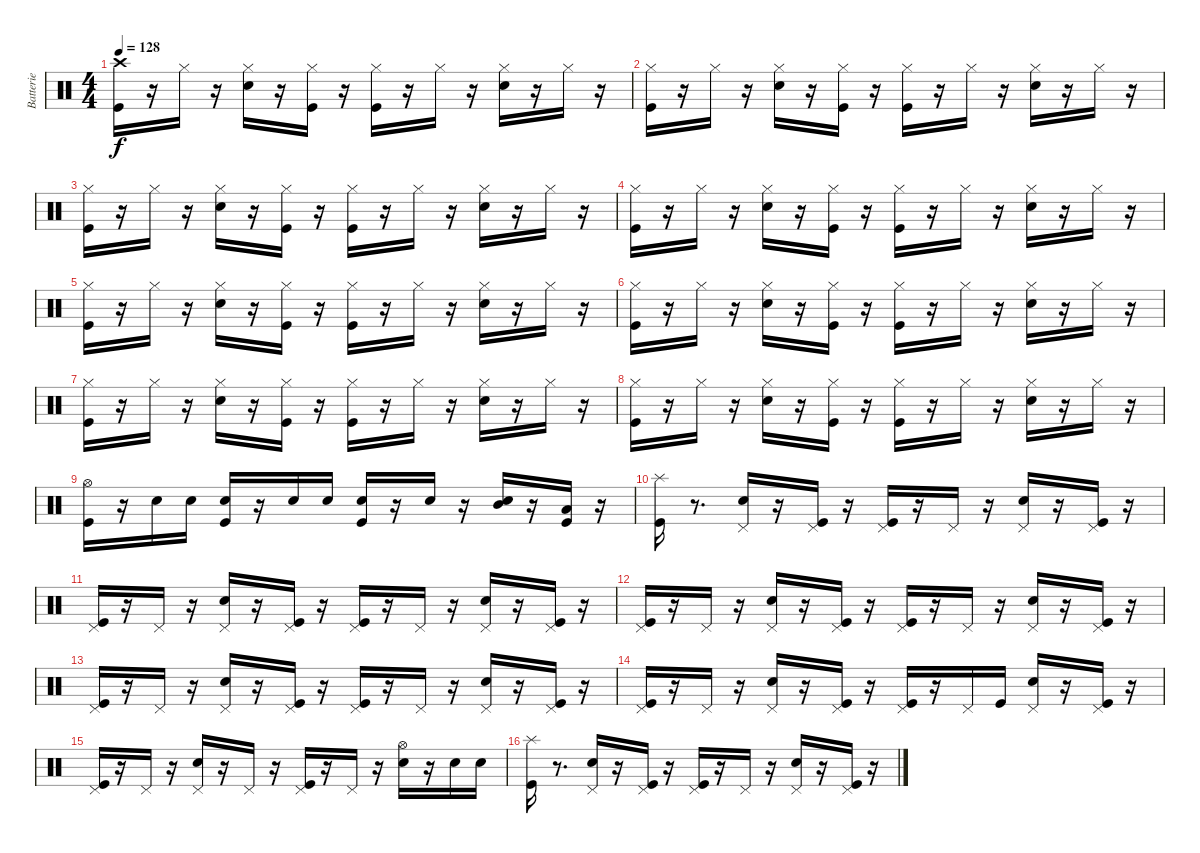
\track ("Batterie" "Batterie") {instrument percussion}
\staff {score}
\articulation defaults
\ts (4 4)
\tempo 128
\clef neutral
\ks c
("Crash high (hit)" "Kick (hit)").16{dy f} r.16 "Hi-Hat (closed)".16 r.16 ("Snare (hit) 2" "Hi-Hat (closed)").16 r.16 ("Kick (hit)" "Hi-Hat (closed)").16 r.16 ("Kick (hit)" "Hi-Hat (closed)").16 r.16 "Hi-Hat (closed)".16 r.16 ("Snare (hit) 2" "Hi-Hat (closed)").16 r.16 "Hi-Hat (closed)".16 r.16 |
("Kick (hit)" "Hi-Hat (closed)").16 r.16 "Hi-Hat (closed)".16 r.16 ("Snare (hit) 2" "Hi-Hat (closed)").16 r.16 ("Kick (hit)" "Hi-Hat (closed)").16 r.16 ("Kick (hit)" "Hi-Hat (closed)").16 r.16 "Hi-Hat (closed)".16 r.16 ("Snare (hit) 2" "Hi-Hat (closed)").16 r.16 "Hi-Hat (closed)".16 r.16 |
("Kick (hit)" "Hi-Hat (closed)").16 r.16 "Hi-Hat (closed)".16 r.16 ("Snare (hit) 2" "Hi-Hat (closed)").16 r.16 ("Kick (hit)" "Hi-Hat (closed)").16 r.16 ("Kick (hit)" "Hi-Hat (closed)").16 r.16 "Hi-Hat (closed)".16 r.16 ("Snare (hit) 2" "Hi-Hat (closed)").16 r.16 "Hi-Hat (closed)".16 r.16 |
("Kick (hit)" "Hi-Hat (closed)").16 r.16 "Hi-Hat (closed)".16 r.16 ("Snare (hit) 2" "Hi-Hat (closed)").16 r.16 ("Kick (hit)" "Hi-Hat (closed)").16 r.16 ("Kick (hit)" "Hi-Hat (closed)").16 r.16 "Hi-Hat (closed)".16 r.16 ("Snare (hit) 2" "Hi-Hat (closed)").16 r.16 "Hi-Hat (closed)".16 r.16 |
("Hi-Hat (closed)" "Kick (hit)").16 r.16 "Hi-Hat (closed)".16 r.16 ("Snare (hit) 2" "Hi-Hat (closed)").16 r.16 ("Kick (hit)" "Hi-Hat (closed)").16 r.16 ("Kick (hit)" "Hi-Hat (closed)").16 r.16 "Hi-Hat (closed)".16 r.16 ("Snare (hit) 2" "Hi-Hat (closed)").16 r.16 "Hi-Hat (closed)".16 r.16 |
("Kick (hit)" "Hi-Hat (closed)").16 r.16 "Hi-Hat (closed)".16 r.16 ("Snare (hit) 2" "Hi-Hat (closed)").16 r.16 ("Kick (hit)" "Hi-Hat (closed)").16 r.16 ("Kick (hit)" "Hi-Hat (closed)").16 r.16 "Hi-Hat (closed)".16 r.16 ("Snare (hit) 2" "Hi-Hat (closed)").16 r.16 "Hi-Hat (closed)".16 r.16 |
("Kick (hit)" "Hi-Hat (closed)").16 r.16 "Hi-Hat (closed)".16 r.16 ("Snare (hit) 2" "Hi-Hat (closed)").16 r.16 ("Kick (hit)" "Hi-Hat (closed)").16 r.16 ("Kick (hit)" "Hi-Hat (closed)").16 r.16 "Hi-Hat (closed)".16 r.16 ("Snare (hit) 2" "Hi-Hat (closed)").16 r.16 "Hi-Hat (closed)".16 r.16 |
("Kick (hit)" "Hi-Hat (closed)").16 r.16 "Hi-Hat (closed)".16 r.16 ("Snare (hit) 2" "Hi-Hat (closed)").16 r.16 ("Kick (hit)" "Hi-Hat (closed)").16 r.16 ("Kick (hit)" "Hi-Hat (closed)").16 r.16 "Hi-Hat (closed)".16 r.16 ("Snare (hit) 2" "Hi-Hat (closed)").16 r.16 "Hi-Hat (closed)".16 r.16 |
("Kick (hit)" "Hi-Hat (open)").16 r.16 "Snare (hit) 2".16 "Snare (hit) 2".16 ("Snare (hit) 2" "Kick (hit)").16 r.16 "Snare (hit) 2".16 "Snare (hit) 2".16 ("Snare (hit) 2" "Kick (hit)").16 r.16 "Snare (hit) 2".16 r.16 ("Mid Tom (hit)" "Snare (hit) 2").16 r.16 ("Low Tom (hit)" "Kick (hit)").16 r.16 |
("Kick (hit)" "Splash (hit)").16 r.8{d} ("Pedal Hi-Hat (hit)" "Snare (hit) 2").16 r.16 ("Kick (hit)" "Pedal Hi-Hat (hit)").16 r.16 ("Pedal Hi-Hat (hit)" "Kick (hit)").16 r.16 "Pedal Hi-Hat (hit)".16 r.16 ("Pedal Hi-Hat (hit)" "Snare (hit) 2").16 r.16 ("Kick (hit)" "Pedal Hi-Hat (hit)").16 r.16 |
("Pedal Hi-Hat (hit)" "Kick (hit)").16 r.16 "Pedal Hi-Hat (hit)".16 r.16 ("Pedal Hi-Hat (hit)" "Snare (hit) 2").16 r.16 ("Pedal Hi-Hat (hit)" "Kick (hit)").16 r.16 ("Pedal Hi-Hat (hit)" "Kick (hit)").16 r.16 "Pedal Hi-Hat (hit)".16 r.16 ("Pedal Hi-Hat (hit)" "Snare (hit) 2").16 r.16 ("Pedal Hi-Hat (hit)" "Kick (hit)").16 r.16 |
("Pedal Hi-Hat (hit)" "Kick (hit)").16 r.16 "Pedal Hi-Hat (hit)".16 r.16 ("Pedal Hi-Hat (hit)" "Snare (hit) 2").16 r.16 ("Kick (hit)" "Pedal Hi-Hat (hit)").16 r.16 ("Pedal Hi-Hat (hit)" "Kick (hit)").16 r.16 "Pedal Hi-Hat (hit)".16 r.16 ("Pedal Hi-Hat (hit)" "Snare (hit) 2").16 r.16 ("Kick (hit)" "Pedal Hi-Hat (hit)").16 r.16 |
("Pedal Hi-Hat (hit)" "Kick (hit)").16 r.16 "Pedal Hi-Hat (hit)".16 r.16 ("Pedal Hi-Hat (hit)" "Snare (hit) 2").16 r.16 ("Pedal Hi-Hat (hit)" "Kick (hit)").16 r.16 ("Pedal Hi-Hat (hit)" "Kick (hit)").16 r.16 "Pedal Hi-Hat (hit)".16 r.16 ("Pedal Hi-Hat (hit)" "Snare (hit) 2").16 r.16 ("Pedal Hi-Hat (hit)" "Kick (hit)").16 r.16 |
("Pedal Hi-Hat (hit)" "Kick (hit)").16 r.16 "Pedal Hi-Hat (hit)".16 r.16 ("Pedal Hi-Hat (hit)" "Snare (hit) 2").16 r.16 ("Kick (hit)" "Pedal Hi-Hat (hit)").16 r.16 ("Pedal Hi-Hat (hit)" "Kick (hit)").16 r.16 "Pedal Hi-Hat (hit)".16 "Kick (hit)".16 ("Pedal Hi-Hat (hit)" "Snare (hit) 2").16 r.16 ("Kick (hit)" "Pedal Hi-Hat (hit)").16 r.16 |
("Pedal Hi-Hat (hit)" "Kick (hit)").16 r.16 "Pedal Hi-Hat (hit)".16 r.16 ("Pedal Hi-Hat (hit)" "Snare (hit) 2").16 r.16 "Pedal Hi-Hat (hit)".16 r.16 ("Pedal Hi-Hat (hit)" "Kick (hit)").16 r.16 "Pedal Hi-Hat (hit)".16 r.16 ("Hi-Hat (open)" "Snare (hit) 2").16 r.16 "Snare (hit) 2".16 "Snare (hit) 2".16 |
("Splash (hit)" "Kick (hit)").16 r.8{d} ("Pedal Hi-Hat (hit)" "Snare (hit) 2").16 r.16 ("Kick (hit)" "Pedal Hi-Hat (hit)").16 r.16 ("Pedal Hi-Hat (hit)" "Kick (hit)").16 r.16 "Pedal Hi-Hat (hit)".16 r.16 ("Pedal Hi-Hat (hit)" "Snare (hit) 2").16 r.16 ("Kick (hit)" "Pedal Hi-Hat (hit)").16 r.16
